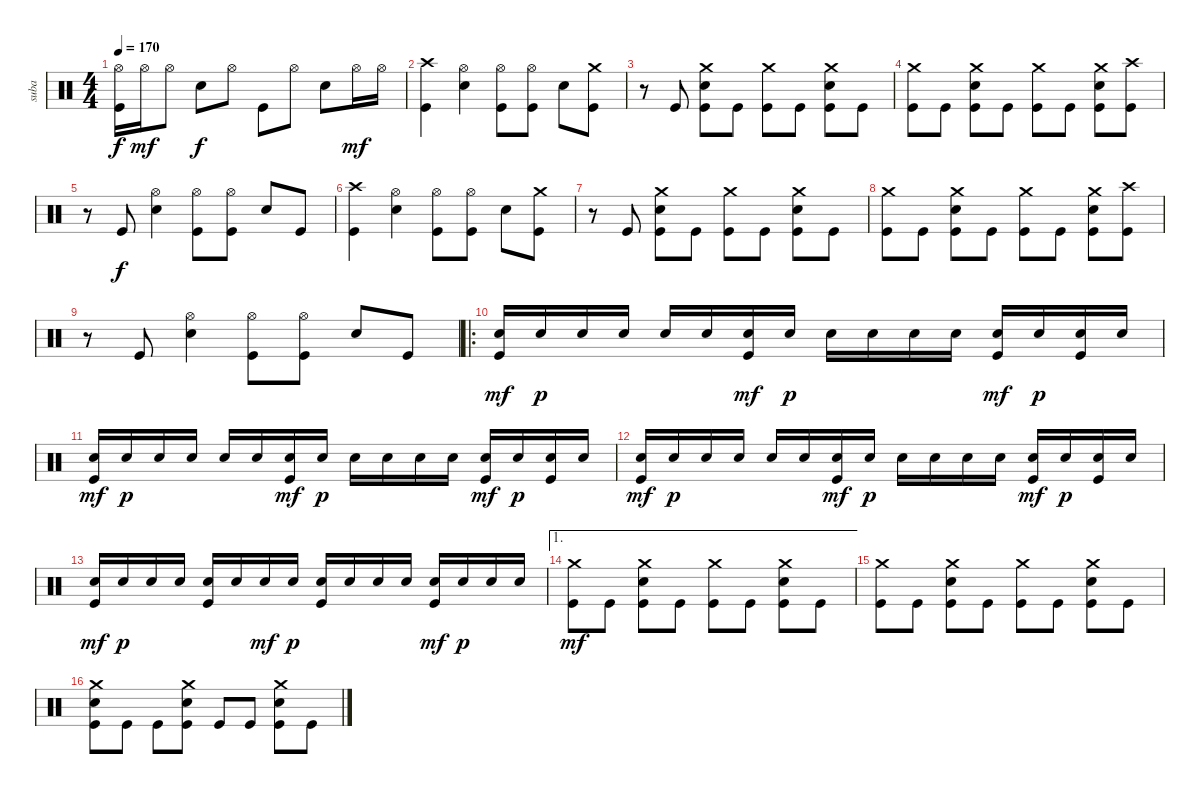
\track ("suba" "suba") {instrument percussion}
\staff {score}
\articulation defaults
\ts (4 4)
\tempo 170
\clef neutral
\ks c
("Hi-Hat (open)" "Kick (hit)").16{dy f} "Hi-Hat (open)".16{dy mf} "Hi-Hat (open)".8 "Electric Snare (hit)".8{dy f} "Hi-Hat (open)".8 "Kick (hit)".8 "Hi-Hat (open)".8 "Electric Snare (hit)".8 "Hi-Hat (open)".16{dy mf} "Hi-Hat (open)".16 |
("Crash high (hit)" "Kick (hit)").4 ("Hi-Hat (open)" "Electric Snare (hit)").4 ("Hi-Hat (open)" "Kick (hit)").8 ("Hi-Hat (open)" "Kick (hit)").8 "Electric Snare (hit)".8 ("Crash medium (hit)" "Kick (hit)").8 |
r.8 "Kick (hit)".8 ("Crash medium (hit)" "Electric Snare (hit)" "Kick (hit)").8 "Kick (hit)".8 ("Crash medium (hit)" "Kick (hit)").8 "Kick (hit)".8 ("Crash medium (hit)" "Electric Snare (hit)" "Kick (hit)").8 "Kick (hit)".8 |
("Crash medium (hit)" "Kick (hit)").8 "Kick (hit)".8 ("Crash medium (hit)" "Electric Snare (hit)" "Kick (hit)").8 "Kick (hit)".8 ("Crash medium (hit)" "Kick (hit)").8 "Kick (hit)".8 ("Crash medium (hit)" "Electric Snare (hit)" "Kick (hit)").8 ("Crash high (hit)" "Kick (hit)").8 |
r.8 "Kick (hit)".8{dy f} ("Hi-Hat (open)" "Electric Snare (hit)").4 ("Hi-Hat (open)" "Kick (hit)").8 ("Hi-Hat (open)" "Kick (hit)").8 "Electric Snare (hit)".8 "Kick (hit)".8 |
("Crash high (hit)" "Kick (hit)").4 ("Hi-Hat (open)" "Electric Snare (hit)").4 ("Hi-Hat (open)" "Kick (hit)").8 ("Hi-Hat (open)" "Kick (hit)").8 "Electric Snare (hit)".8 ("Crash medium (hit)" "Kick (hit)").8 |
r.8 "Kick (hit)".8 ("Crash medium (hit)" "Electric Snare (hit)" "Kick (hit)").8 "Kick (hit)".8 ("Crash medium (hit)" "Kick (hit)").8 "Kick (hit)".8 ("Crash medium (hit)" "Electric Snare (hit)" "Kick (hit)").8 "Kick (hit)".8 |
("Crash medium (hit)" "Kick (hit)").8 "Kick (hit)".8 ("Crash medium (hit)" "Electric Snare (hit)" "Kick (hit)").8 "Kick (hit)".8 ("Crash medium (hit)" "Kick (hit)").8 "Kick (hit)".8 ("Crash medium (hit)" "Electric Snare (hit)" "Kick (hit)").8 ("Crash high (hit)" "Kick (hit)").8 |
r.8 "Kick (hit)".8 ("Hi-Hat (open)" "Electric Snare (hit)").4 ("Hi-Hat (open)" "Kick (hit)").8 ("Hi-Hat (open)" "Kick (hit)").8 "Electric Snare (hit)".8 "Kick (hit)".8 |
\ro
("Electric Snare (hit)" "Kick (hit)").16{dy mf} "Electric Snare (hit)".16{dy p} "Electric Snare (hit)".16 "Electric Snare (hit)".16 "Electric Snare (hit)".16 "Electric Snare (hit)".16 ("Electric Snare (hit)" "Kick (hit)").16{dy mf} "Electric Snare (hit)".16{dy p} "Electric Snare (hit)".16 "Electric Snare (hit)".16 "Electric Snare (hit)".16 "Electric Snare (hit)".16 ("Electric Snare (hit)" "Kick (hit)").16{dy mf} "Electric Snare (hit)".16{dy p} ("Electric Snare (hit)" "Kick (hit)").16 "Electric Snare (hit)".16 |
("Electric Snare (hit)" "Kick (hit)").16{dy mf} "Electric Snare (hit)".16{dy p} "Electric Snare (hit)".16 "Electric Snare (hit)".16 "Electric Snare (hit)".16 "Electric Snare (hit)".16 ("Electric Snare (hit)" "Kick (hit)").16{dy mf} "Electric Snare (hit)".16{dy p} "Electric Snare (hit)".16 "Electric Snare (hit)".16 "Electric Snare (hit)".16 "Electric Snare (hit)".16 ("Electric Snare (hit)" "Kick (hit)").16{dy mf} "Electric Snare (hit)".16{dy p} ("Electric Snare (hit)" "Kick (hit)").16 "Electric Snare (hit)".16 |
("Electric Snare (hit)" "Kick (hit)").16{dy mf} "Electric Snare (hit)".16{dy p} "Electric Snare (hit)".16 "Electric Snare (hit)".16 "Electric Snare (hit)".16 "Electric Snare (hit)".16 ("Electric Snare (hit)" "Kick (hit)").16{dy mf} "Electric Snare (hit)".16{dy p} "Electric Snare (hit)".16 "Electric Snare (hit)".16 "Electric Snare (hit)".16 "Electric Snare (hit)".16 ("Electric Snare (hit)" "Kick (hit)").16{dy mf} "Electric Snare (hit)".16{dy p} ("Electric Snare (hit)" "Kick (hit)").16 "Electric Snare (hit)".16 |
("Electric Snare (hit)" "Kick (hit)").16{dy mf} "Electric Snare (hit)".16{dy p} "Electric Snare (hit)".16 "Electric Snare (hit)".16 ("Electric Snare (hit)" "Kick (hit)").16 "Electric Snare (hit)".16 "Electric Snare (hit)".16{dy mf} "Electric Snare (hit)".16{dy p} ("Electric Snare (hit)" "Kick (hit)").16 "Electric Snare (hit)".16 "Electric Snare (hit)".16 "Electric Snare (hit)".16 ("Electric Snare (hit)" "Kick (hit)").16{dy mf} "Electric Snare (hit)".16{dy p} "Electric Snare (hit)".16 "Electric Snare (hit)".16 |
\ae 1
("Crash medium (hit)" "Kick (hit)").8{dy mf} "Kick (hit)".8 ("Crash medium (hit)" "Electric Snare (hit)" "Kick (hit)").8 "Kick (hit)".8 ("Crash medium (hit)" "Kick (hit)").8 "Kick (hit)".8 ("Crash medium (hit)" "Electric Snare (hit)" "Kick (hit)").8 "Kick (hit)".8 |
("Crash medium (hit)" "Kick (hit)").8 "Kick (hit)".8 ("Crash medium (hit)" "Electric Snare (hit)" "Kick (hit)").8 "Kick (hit)".8 ("Crash medium (hit)" "Kick (hit)").8 "Kick (hit)".8 ("Crash medium (hit)" "Electric Snare (hit)" "Kick (hit)").8 "Kick (hit)".8 |
("Crash medium (hit)" "Electric Snare (hit)" "Kick (hit)").8 "Kick (hit)".8 "Kick (hit)".8 ("Crash medium (hit)" "Electric Snare (hit)" "Kick (hit)").8 "Kick (hit)".8 "Kick (hit)".8 ("Crash medium (hit)" "Electric Snare (hit)" "Kick (hit)").8 "Kick (hit)".8
